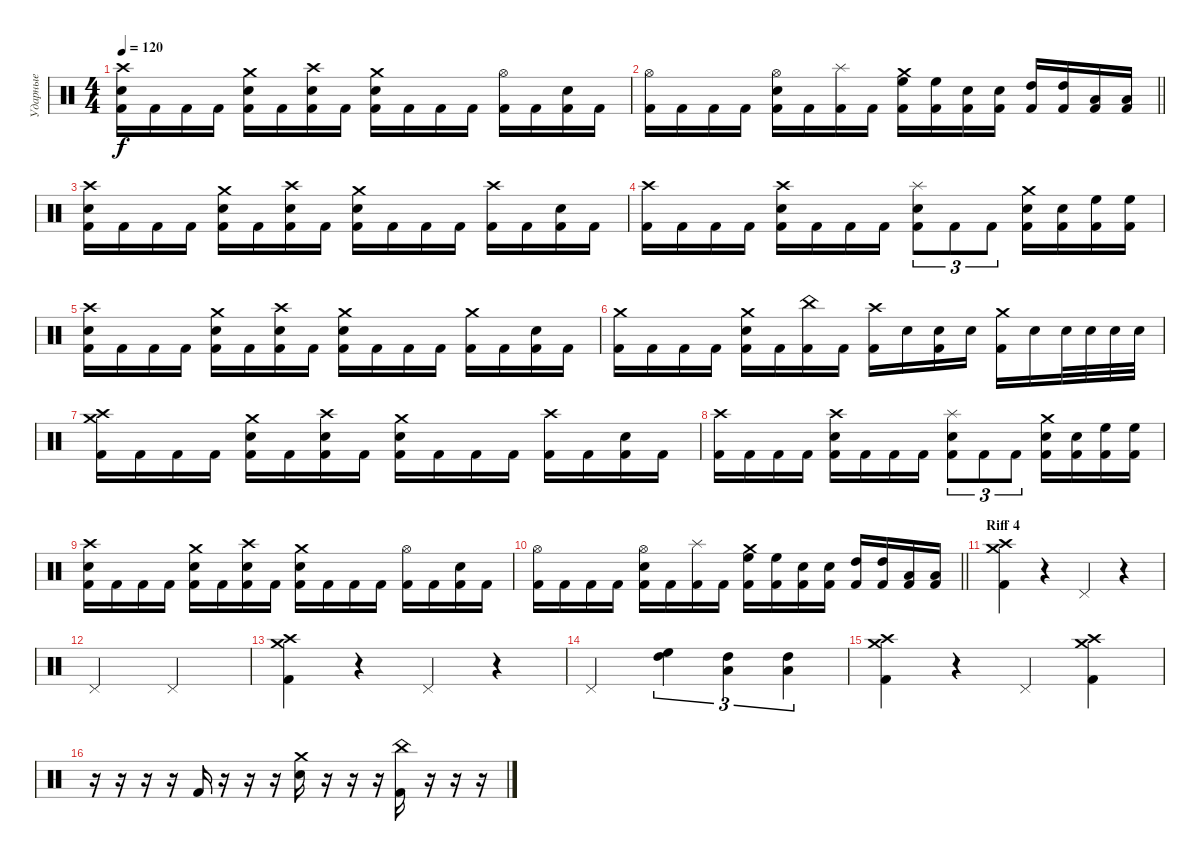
\track ("Ударные" "Ударные") {instrument percussion}
\staff {score}
\articulation defaults
\ts (4 4)
\tempo 120
\clef neutral
\ks c
("Crash high (hit)" "Electric Snare (hit)" "Kick (hit) 2").16{dy f} "Kick (hit) 2".16 "Kick (hit) 2".16 "Kick (hit) 2".16 ("Crash medium (hit)" "Electric Snare (hit)" "Kick (hit) 2").16 "Kick (hit) 2".16 ("Crash high (hit)" "Electric Snare (hit)" "Kick (hit) 2").16 "Kick (hit) 2".16 ("Crash medium (hit)" "Electric Snare (hit)" "Kick (hit) 2").16 "Kick (hit) 2".16 "Kick (hit) 2".16 "Kick (hit) 2".16 ("Hi-Hat (open)" "Kick (hit) 2").16 "Kick (hit) 2".16 ("Electric Snare (hit)" "Kick (hit) 2").16 "Kick (hit) 2".16 |
\barLineRight lightlight
("Hi-Hat (open)" "Kick (hit) 2").16 "Kick (hit) 2".16 "Kick (hit) 2".16 "Kick (hit) 2".16 ("Hi-Hat (open)" "Electric Snare (hit)" "Kick (hit) 2").16 "Kick (hit) 2".16 ("Splash (hit)" "Kick (hit) 2").16 "Kick (hit) 2".16 ("Crash medium (hit)" "High Floor Tom (hit)" "Kick (hit) 2").16 ("High Floor Tom (hit)" "Kick (hit) 2").16 ("Electric Snare (hit)" "Kick (hit) 2").16 ("Electric Snare (hit)" "Kick (hit) 2").16 ("High Tom (hit)" "Kick (hit) 2").16 ("High Tom (hit)" "Kick (hit) 2").16 ("Low Tom (hit)" "Kick (hit) 2").16 ("Low Tom (hit)" "Kick (hit) 2").16 |
("Crash high (hit)" "Electric Snare (hit)" "Kick (hit) 2").16 "Kick (hit) 2".16 "Kick (hit) 2".16 "Kick (hit) 2".16 ("Crash medium (hit)" "Electric Snare (hit)" "Kick (hit) 2").16 "Kick (hit) 2".16 ("Crash high (hit)" "Electric Snare (hit)" "Kick (hit) 2").16 "Kick (hit) 2".16 ("Crash medium (hit)" "Electric Snare (hit)" "Kick (hit) 2").16 "Kick (hit) 2".16 "Kick (hit) 2".16 "Kick (hit) 2".16 ("Crash high (hit)" "Kick (hit) 2").16 "Kick (hit) 2".16 ("Electric Snare (hit)" "Kick (hit) 2").16 "Kick (hit) 2".16 |
("Crash high (hit)" "Kick (hit) 2").16 "Kick (hit) 2".16 "Kick (hit) 2".16 "Kick (hit) 2".16 ("Crash high (hit)" "Electric Snare (hit)" "Kick (hit) 2").16 "Kick (hit) 2".16 "Kick (hit) 2".16 "Kick (hit) 2".16 ("Splash (hit)" "Electric Snare (hit)" "Kick (hit) 2").8{tu (3 2)} "Kick (hit) 2".8{tu (3 2)} "Kick (hit) 2".8{tu (3 2)} ("Crash medium (hit)" "Electric Snare (hit)" "Kick (hit) 2").16 ("Electric Snare (hit)" "Kick (hit) 2").16 ("High Floor Tom (hit)" "Kick (hit) 2").16 ("High Floor Tom (hit)" "Kick (hit) 2").16 |
("Crash high (hit)" "Electric Snare (hit)" "Kick (hit) 2").16 "Kick (hit) 2".16 "Kick (hit) 2".16 "Kick (hit) 2".16 ("Crash medium (hit)" "Electric Snare (hit)" "Kick (hit) 2").16 "Kick (hit) 2".16 ("Crash high (hit)" "Electric Snare (hit)" "Kick (hit) 2").16 "Kick (hit) 2".16 ("Crash medium (hit)" "Electric Snare (hit)" "Kick (hit) 2").16 "Kick (hit) 2".16 "Kick (hit) 2".16 "Kick (hit) 2".16 ("Crash medium (hit)" "Kick (hit) 2").16 "Kick (hit) 2".16 ("Electric Snare (hit)" "Kick (hit) 2").16 "Kick (hit) 2".16 |
("Crash medium (hit)" "Kick (hit) 2").16 "Kick (hit) 2".16 "Kick (hit) 2".16 "Kick (hit) 2".16 ("Crash medium (hit)" "Electric Snare (hit)" "Kick (hit) 2").16 "Kick (hit) 2".16 ("China (hit)" "Kick (hit) 2").16 "Kick (hit) 2".16 ("Crash high (hit)" "Kick (hit) 2").16 "Electric Snare (hit)".16 ("Electric Snare (hit)" "Kick (hit) 2").16 "Electric Snare (hit)".16 ("Crash medium (hit)" "Kick (hit) 2").16 "Electric Snare (hit)".16 "Electric Snare (hit)".32 "Electric Snare (hit)".32 "Electric Snare (hit)".32 "Electric Snare (hit)".32 |
("Crash high (hit)" "Crash medium (hit)" "Kick (hit) 2").16 "Kick (hit) 2".16 "Kick (hit) 2".16 "Kick (hit) 2".16 ("Crash medium (hit)" "Electric Snare (hit)" "Kick (hit) 2").16 "Kick (hit) 2".16 ("Crash high (hit)" "Electric Snare (hit)" "Kick (hit) 2").16 "Kick (hit) 2".16 ("Crash medium (hit)" "Electric Snare (hit)" "Kick (hit) 2").16 "Kick (hit) 2".16 "Kick (hit) 2".16 "Kick (hit) 2".16 ("Crash high (hit)" "Kick (hit) 2").16 "Kick (hit) 2".16 ("Electric Snare (hit)" "Kick (hit) 2").16 "Kick (hit) 2".16 |
("Crash high (hit)" "Kick (hit) 2").16 "Kick (hit) 2".16 "Kick (hit) 2".16 "Kick (hit) 2".16 ("Crash high (hit)" "Electric Snare (hit)" "Kick (hit) 2").16 "Kick (hit) 2".16 "Kick (hit) 2".16 "Kick (hit) 2".16 ("Splash (hit)" "Electric Snare (hit)" "Kick (hit) 2").8{tu (3 2)} "Kick (hit) 2".8{tu (3 2)} "Kick (hit) 2".8{tu (3 2)} ("Crash medium (hit)" "Electric Snare (hit)" "Kick (hit) 2").16 ("Electric Snare (hit)" "Kick (hit) 2").16 ("High Floor Tom (hit)" "Kick (hit) 2").16 ("High Floor Tom (hit)" "Kick (hit) 2").16 |
("Crash high (hit)" "Electric Snare (hit)" "Kick (hit) 2").16 "Kick (hit) 2".16 "Kick (hit) 2".16 "Kick (hit) 2".16 ("Crash medium (hit)" "Electric Snare (hit)" "Kick (hit) 2").16 "Kick (hit) 2".16 ("Crash high (hit)" "Electric Snare (hit)" "Kick (hit) 2").16 "Kick (hit) 2".16 ("Crash medium (hit)" "Electric Snare (hit)" "Kick (hit) 2").16 "Kick (hit) 2".16 "Kick (hit) 2".16 "Kick (hit) 2".16 ("Hi-Hat (open)" "Kick (hit) 2").16 "Kick (hit) 2".16 ("Electric Snare (hit)" "Kick (hit) 2").16 "Kick (hit) 2".16 |
\barLineRight lightlight
("Hi-Hat (open)" "Kick (hit) 2").16 "Kick (hit) 2".16 "Kick (hit) 2".16 "Kick (hit) 2".16 ("Hi-Hat (open)" "Electric Snare (hit)" "Kick (hit) 2").16 "Kick (hit) 2".16 ("Splash (hit)" "Kick (hit) 2").16 "Kick (hit) 2".16 ("Crash medium (hit)" "High Floor Tom (hit)" "Kick (hit) 2").16 ("High Floor Tom (hit)" "Kick (hit) 2").16 ("Electric Snare (hit)" "Kick (hit) 2").16 ("Electric Snare (hit)" "Kick (hit) 2").16 ("High Tom (hit)" "Kick (hit) 2").16 ("High Tom (hit)" "Kick (hit) 2").16 ("Low Tom (hit)" "Kick (hit) 2").16 ("Low Tom (hit)" "Kick (hit) 2").16 |
\section ("" "Riff 4")
("Crash high (hit)" "Crash medium (hit)" "Kick (hit) 2").4 r.4 "Pedal Hi-Hat (hit)".4 r.4 |
"Pedal Hi-Hat (hit)".2 "Pedal Hi-Hat (hit)".2 |
("Crash high (hit)" "Crash medium (hit)" "Kick (hit) 2").4 r.4 "Pedal Hi-Hat (hit)".4 r.4 |
"Pedal Hi-Hat (hit)".2 ("High Floor Tom (hit)" "High Tom (hit)").4{tu (3 2)} ("Low Tom (hit)" "High Tom (hit)").4{tu (3 2)} ("Low Tom (hit)" "High Tom (hit)").4{tu (3 2)} |
("Crash high (hit)" "Crash medium (hit)" "Kick (hit) 2").4 r.4 "Pedal Hi-Hat (hit)".4 ("Crash high (hit)" "Crash medium (hit)" "Kick (hit) 2").4 |
r.16 r.16 r.16 r.16 "Kick (hit) 2".16 r.16 r.16 r.16 ("Crash medium (hit)" "Electric Snare (hit)").16 r.16 r.16 r.16 ("China (hit)" "Kick (hit) 2").16 r.16 r.16 r.16
